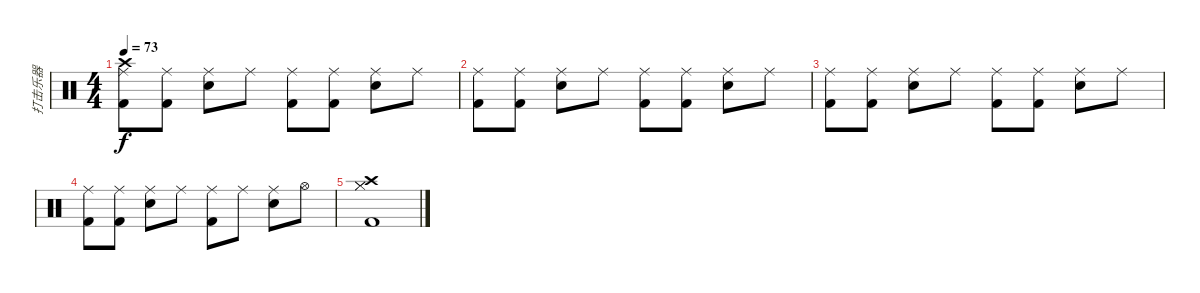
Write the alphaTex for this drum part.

\track ("打击乐器" "打击乐器") {instrument percussion}
\staff {score}
\articulation defaults
\ts (4 4)
\tempo 73
\clef neutral
\ks c
("Crash high (hit)" "Ride (middle)" "Kick (hit) 2").8{dy f} ("Ride (middle)" "Kick (hit) 2").8 ("Ride (middle)" "Electric Snare (hit)").8 "Ride (middle)".8 ("Ride (middle)" "Kick (hit) 2").8 ("Ride (middle)" "Kick (hit) 2").8 ("Ride (middle)" "Electric Snare (hit)").8 "Ride (middle)".8 |
("Ride (middle)" "Kick (hit) 2").8 ("Ride (middle)" "Kick (hit) 2").8 ("Ride (middle)" "Electric Snare (hit)").8 "Ride (middle)".8 ("Ride (middle)" "Kick (hit) 2").8 ("Ride (middle)" "Kick (hit) 2").8 ("Ride (middle)" "Electric Snare (hit)").8 "Ride (middle)".8 |
("Ride (middle)" "Kick (hit) 2").8 ("Ride (middle)" "Kick (hit) 2").8 ("Ride (middle)" "Electric Snare (hit)").8 "Ride (middle)".8 ("Ride (middle)" "Kick (hit) 2").8 ("Ride (middle)" "Kick (hit) 2").8 ("Ride (middle)" "Electric Snare (hit)").8 "Ride (middle)".8 |
("Ride (middle)" "Kick (hit) 2").8 ("Ride (middle)" "Kick (hit) 2").8 ("Ride (middle)" "Electric Snare (hit)").8 "Ride (middle)".8 ("Ride (middle)" "Kick (hit) 2").8 "Ride (middle)".8 ("Ride (middle)" "Electric Snare (hit)").8 "Hi-Hat (open)".8 |
("Crash high (hit)" "Hi-Hat (closed)" "Hi-Hat (closed)" "Kick (hit) 2").1
